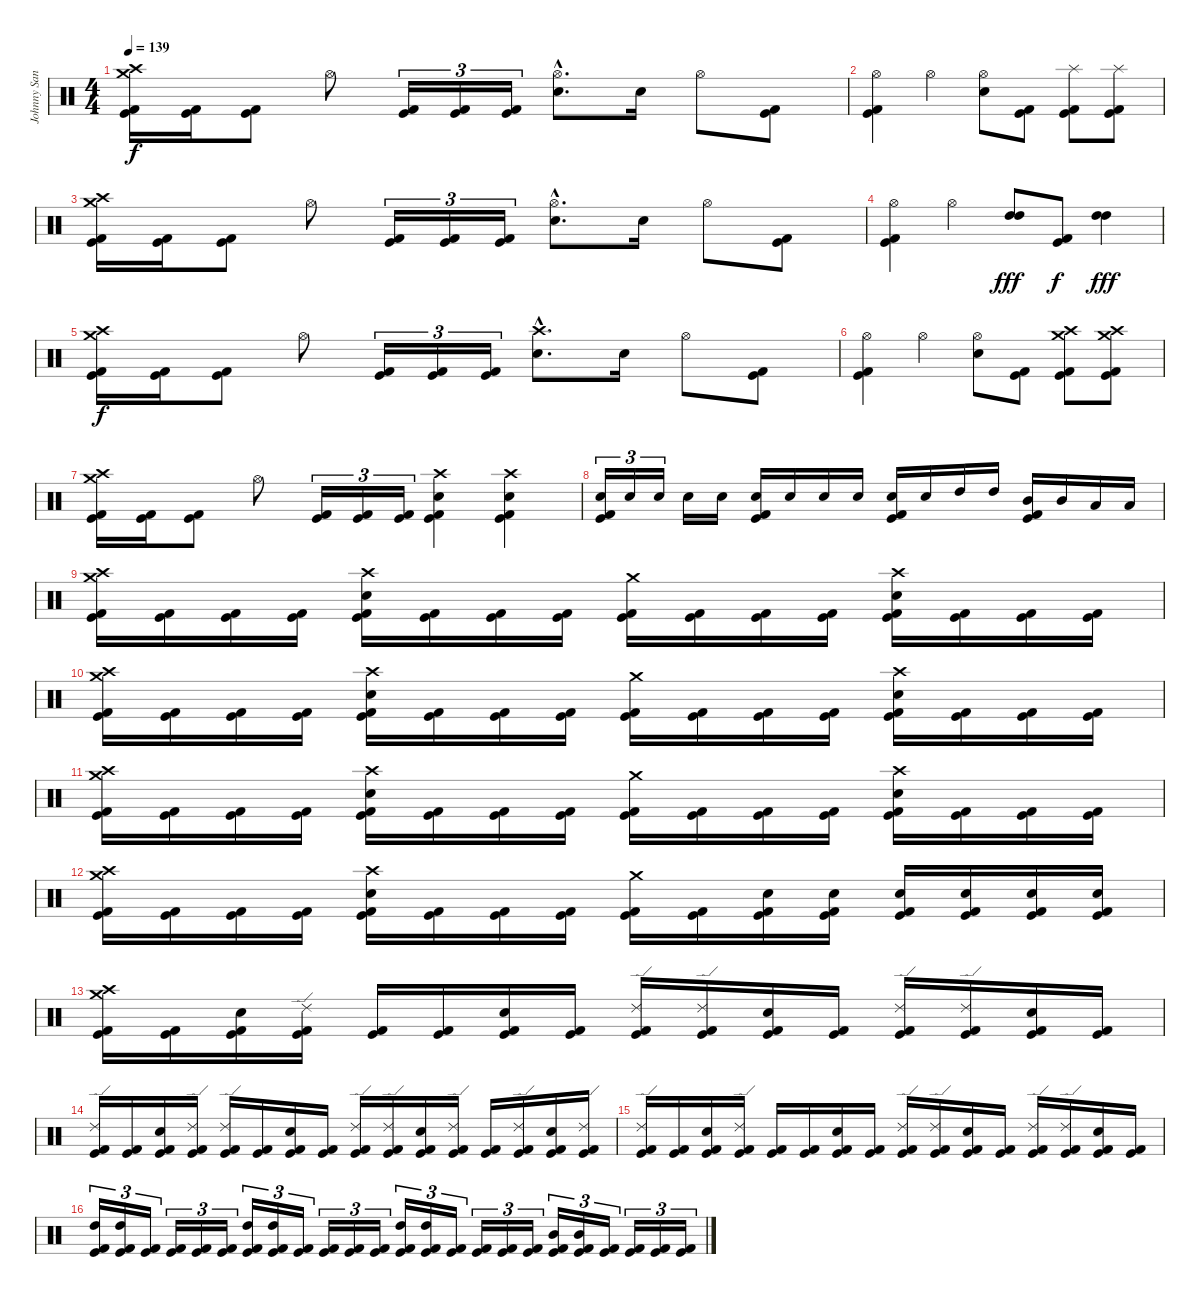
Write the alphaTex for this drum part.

\track ("Johnny Sandin" "Johnny San") {instrument percussion}
\staff {score}
\articulation defaults
\ts (4 4)
\tempo 139
\clef neutral
\ks c
("Crash medium (hit)" "Crash high (hit)" "Kick (hit) 2" "Kick (hit)").16{dy f} ("Kick (hit) 2" "Kick (hit)").16 ("Kick (hit) 2" "Kick (hit)").8 "Hi-Hat (open)".8 ("Kick (hit) 2" "Kick (hit)").16{tu (3 2)} ("Kick (hit) 2" "Kick (hit)").16{tu (3 2)} ("Kick (hit) 2" "Kick (hit)").16{tu (3 2)} ("Hi-Hat (open)"{hac} "Snare (hit) 2"{hac}).8{d} "Snare (hit) 2".16 "Hi-Hat (open)".8 ("Kick (hit) 2" "Kick (hit)").8 |
("Hi-Hat (open)" "Kick (hit) 2" "Kick (hit)").4 "Hi-Hat (open)".4 ("Hi-Hat (open)" "Snare (hit) 2").8 ("Kick (hit)" "Kick (hit) 2").8 ("Splash (hit)" "Kick (hit) 2" "Kick (hit)").8 ("Splash (hit)" "Kick (hit) 2" "Kick (hit)").8 |
("Crash medium (hit)" "Crash high (hit)" "Kick (hit) 2" "Kick (hit)").16 ("Kick (hit) 2" "Kick (hit)").16 ("Kick (hit) 2" "Kick (hit)").8 "Hi-Hat (open)".8 ("Kick (hit) 2" "Kick (hit)").16{tu (3 2)} ("Kick (hit) 2" "Kick (hit)").16{tu (3 2)} ("Kick (hit) 2" "Kick (hit)").16{tu (3 2)} ("Hi-Hat (open)"{hac} "Snare (hit) 2"{hac}).8{d} "Snare (hit) 2".16 "Hi-Hat (open)".8 ("Kick (hit) 2" "Kick (hit)").8 |
("Hi-Hat (open)" "Kick (hit) 2" "Kick (hit)").4 "Hi-Hat (open)".4 ("High Tom (hit)" "High Tom (hit)").8{dy fff} ("Kick (hit) 2" "Kick (hit)").8{dy f} ("High Tom (hit)" "High Tom (hit)").4{dy fff} |
("Crash medium (hit)" "Crash high (hit)" "Kick (hit) 2" "Kick (hit)").16{dy f} ("Kick (hit) 2" "Kick (hit)").16 ("Kick (hit) 2" "Kick (hit)").8 "Hi-Hat (open)".8 ("Kick (hit) 2" "Kick (hit)").16{tu (3 2)} ("Kick (hit) 2" "Kick (hit)").16{tu (3 2)} ("Kick (hit) 2" "Kick (hit)").16{tu (3 2)} ("Crash high (hit)"{hac} "Snare (hit) 2"{hac}).8{d} "Snare (hit) 2".16 "Hi-Hat (open)".8 ("Kick (hit) 2" "Kick (hit)").8 |
("Hi-Hat (open)" "Kick (hit) 2" "Kick (hit)").4 "Hi-Hat (open)".4 ("Hi-Hat (open)" "Snare (hit) 2").8 ("Kick (hit)" "Kick (hit) 2").8 ("Crash medium (hit)" "Crash high (hit)" "Kick (hit) 2" "Kick (hit)").8 ("Crash medium (hit)" "Crash high (hit)" "Kick (hit) 2" "Kick (hit)").8 |
("Crash medium (hit)" "Crash high (hit)" "Kick (hit) 2" "Kick (hit)").16 ("Kick (hit) 2" "Kick (hit)").16 ("Kick (hit) 2" "Kick (hit)").8 "Hi-Hat (open)".8 ("Kick (hit) 2" "Kick (hit)").16{tu (3 2)} ("Kick (hit) 2" "Kick (hit)").16{tu (3 2)} ("Kick (hit) 2" "Kick (hit)").16{tu (3 2)} ("Crash high (hit)" "Snare (hit) 2" "Kick (hit) 2" "Kick (hit)").4 ("Crash high (hit)" "Snare (hit) 2" "Kick (hit) 2" "Kick (hit)").4 |
("Snare (hit) 2" "Kick (hit) 2" "Kick (hit)").16{tu (3 2)} "Snare (hit) 2".16{tu (3 2)} "Snare (hit) 2".16{tu (3 2)} "Snare (hit) 2".16 "Snare (hit) 2".16 ("Snare (hit) 2" "Kick (hit)" "Kick (hit) 2").16 "Snare (hit) 2".16 "Snare (hit) 2".16 "Snare (hit) 2".16 ("Snare (hit) 2" "Kick (hit) 2" "Kick (hit)").16 "Snare (hit) 2".16 "High Tom (hit)".16 "High Tom (hit)".16 ("Mid Tom (hit)" "Kick (hit) 2" "Kick (hit)").16 "Mid Tom (hit)".16 "Low Tom (hit)".16 "Low Tom (hit)".16 |
("Crash medium (hit)" "Crash high (hit)" "Kick (hit) 2" "Kick (hit)").16 ("Kick (hit) 2" "Kick (hit)").16 ("Kick (hit) 2" "Kick (hit)").16 ("Kick (hit) 2" "Kick (hit)").16 ("Crash high (hit)" "Snare (hit) 2" "Kick (hit) 2" "Kick (hit)").16 ("Kick (hit) 2" "Kick (hit)").16 ("Kick (hit) 2" "Kick (hit)").16 ("Kick (hit) 2" "Kick (hit)").16 ("Crash medium (hit)" "Kick (hit) 2" "Kick (hit)").16 ("Kick (hit) 2" "Kick (hit)").16 ("Kick (hit) 2" "Kick (hit)").16 ("Kick (hit) 2" "Kick (hit)").16 ("Crash high (hit)" "Snare (hit) 2" "Kick (hit) 2" "Kick (hit)").16 ("Kick (hit) 2" "Kick (hit)").16 ("Kick (hit) 2" "Kick (hit)").16 ("Kick (hit) 2" "Kick (hit)").16 |
("Crash medium (hit)" "Crash high (hit)" "Kick (hit) 2" "Kick (hit)").16 ("Kick (hit) 2" "Kick (hit)").16 ("Kick (hit) 2" "Kick (hit)").16 ("Kick (hit) 2" "Kick (hit)").16 ("Crash high (hit)" "Snare (hit) 2" "Kick (hit) 2" "Kick (hit)").16 ("Kick (hit) 2" "Kick (hit)").16 ("Kick (hit) 2" "Kick (hit)").16 ("Kick (hit) 2" "Kick (hit)").16 ("Crash medium (hit)" "Kick (hit) 2" "Kick (hit)").16 ("Kick (hit) 2" "Kick (hit)").16 ("Kick (hit) 2" "Kick (hit)").16 ("Kick (hit) 2" "Kick (hit)").16 ("Crash high (hit)" "Snare (hit) 2" "Kick (hit) 2" "Kick (hit)").16 ("Kick (hit) 2" "Kick (hit)").16 ("Kick (hit) 2" "Kick (hit)").16 ("Kick (hit) 2" "Kick (hit)").16 |
("Crash medium (hit)" "Crash high (hit)" "Kick (hit) 2" "Kick (hit)").16 ("Kick (hit) 2" "Kick (hit)").16 ("Kick (hit) 2" "Kick (hit)").16 ("Kick (hit) 2" "Kick (hit)").16 ("Crash high (hit)" "Snare (hit) 2" "Kick (hit) 2" "Kick (hit)").16 ("Kick (hit) 2" "Kick (hit)").16 ("Kick (hit) 2" "Kick (hit)").16 ("Kick (hit) 2" "Kick (hit)").16 ("Crash medium (hit)" "Kick (hit) 2" "Kick (hit)").16 ("Kick (hit) 2" "Kick (hit)").16 ("Kick (hit) 2" "Kick (hit)").16 ("Kick (hit) 2" "Kick (hit)").16 ("Crash high (hit)" "Snare (hit) 2" "Kick (hit) 2" "Kick (hit)").16 ("Kick (hit) 2" "Kick (hit)").16 ("Kick (hit) 2" "Kick (hit)").16 ("Kick (hit) 2" "Kick (hit)").16 |
("Crash medium (hit)" "Crash high (hit)" "Kick (hit) 2" "Kick (hit)").16 ("Kick (hit) 2" "Kick (hit)").16 ("Kick (hit) 2" "Kick (hit)").16 ("Kick (hit) 2" "Kick (hit)").16 ("Crash high (hit)" "Snare (hit) 2" "Kick (hit) 2" "Kick (hit)").16 ("Kick (hit) 2" "Kick (hit)").16 ("Kick (hit) 2" "Kick (hit)").16 ("Kick (hit) 2" "Kick (hit)").16 ("Crash medium (hit)" "Kick (hit) 2" "Kick (hit)").16 ("Kick (hit) 2" "Kick (hit)").16 ("Snare (hit) 2" "Kick (hit) 2" "Kick (hit)").16 ("Snare (hit) 2" "Kick (hit) 2" "Kick (hit)").16 ("Snare (hit) 2" "Kick (hit) 2" "Kick (hit)").16 ("Snare (hit) 2" "Kick (hit) 2" "Kick (hit)").16 ("Snare (hit) 2" "Kick (hit) 2" "Kick (hit)").16 ("Snare (hit) 2" "Kick (hit) 2" "Kick (hit)").16 |
("Crash medium (hit)" "Crash high (hit)" "Kick (hit) 2" "Kick (hit)").16 ("Kick (hit) 2" "Kick (hit)").16 ("Snare (hit) 2" "Kick (hit) 2" "Kick (hit)").16 ("Ride (edge) 2" "Kick (hit) 2" "Kick (hit)").16 ("Kick (hit) 2" "Kick (hit)").16 ("Kick (hit) 2" "Kick (hit)").16 ("Snare (hit) 2" "Kick (hit) 2" "Kick (hit)").16 ("Kick (hit) 2" "Kick (hit)").16 ("Ride (edge) 2" "Kick (hit) 2" "Kick (hit)").16 ("Ride (edge) 2" "Kick (hit) 2" "Kick (hit)").16 ("Snare (hit) 2" "Kick (hit) 2" "Kick (hit)").16 ("Kick (hit) 2" "Kick (hit)").16 ("Ride (edge) 2" "Kick (hit) 2" "Kick (hit)").16 ("Ride (edge) 2" "Kick (hit) 2" "Kick (hit)").16 ("Snare (hit) 2" "Kick (hit) 2" "Kick (hit)").16 ("Kick (hit) 2" "Kick (hit)").16 |
("Ride (edge) 2" "Kick (hit) 2" "Kick (hit)").16 ("Kick (hit) 2" "Kick (hit)").16 ("Snare (hit) 2" "Kick (hit) 2" "Kick (hit)").16 ("Ride (edge) 2" "Kick (hit) 2" "Kick (hit)").16 ("Ride (edge) 2" "Kick (hit) 2" "Kick (hit)").16 ("Kick (hit) 2" "Kick (hit)").16 ("Snare (hit) 2" "Kick (hit) 2" "Kick (hit)").16 ("Kick (hit) 2" "Kick (hit)").16 ("Ride (edge) 2" "Kick (hit) 2" "Kick (hit)").16 ("Ride (edge) 2" "Kick (hit) 2" "Kick (hit)").16 ("Snare (hit) 2" "Kick (hit) 2" "Kick (hit)").16 ("Ride (edge) 2" "Kick (hit) 2" "Kick (hit)").16 ("Kick (hit) 2" "Kick (hit)").16 ("Ride (edge) 2" "Kick (hit) 2" "Kick (hit)").16 ("Snare (hit) 2" "Kick (hit) 2" "Kick (hit)").16 ("Ride (edge) 2" "Kick (hit) 2" "Kick (hit)").16 |
("Ride (edge) 2" "Kick (hit) 2" "Kick (hit)").16 ("Kick (hit) 2" "Kick (hit)").16 ("Snare (hit) 2" "Kick (hit) 2" "Kick (hit)").16 ("Ride (edge) 2" "Kick (hit) 2" "Kick (hit)").16 ("Kick (hit) 2" "Kick (hit)").16 ("Kick (hit) 2" "Kick (hit)").16 ("Snare (hit) 2" "Kick (hit) 2" "Kick (hit)").16 ("Kick (hit) 2" "Kick (hit)").16 ("Ride (edge) 2" "Kick (hit) 2" "Kick (hit)").16 ("Ride (edge) 2" "Kick (hit) 2" "Kick (hit)").16 ("Snare (hit) 2" "Kick (hit) 2" "Kick (hit)").16 ("Kick (hit) 2" "Kick (hit)").16 ("Ride (edge) 2" "Kick (hit) 2" "Kick (hit)").16 ("Ride (edge) 2" "Kick (hit) 2" "Kick (hit)").16 ("Snare (hit) 2" "Kick (hit) 2" "Kick (hit)").16 ("Kick (hit) 2" "Kick (hit)").16 |
("High Tom (hit)" "Kick (hit) 2" "Kick (hit)").16{tu (3 2)} ("High Tom (hit)" "Kick (hit) 2" "Kick (hit)").16{tu (3 2)} ("Kick (hit) 2" "Kick (hit)").16{tu (3 2)} ("Kick (hit) 2" "Kick (hit)").16{tu (3 2)} ("Kick (hit) 2" "Kick (hit)").16{tu (3 2)} ("Kick (hit) 2" "Kick (hit)").16{tu (3 2)} ("High Tom (hit)" "Kick (hit) 2" "Kick (hit)").16{tu (3 2)} ("High Tom (hit)" "Kick (hit) 2" "Kick (hit)").16{tu (3 2)} ("Kick (hit) 2" "Kick (hit)").16{tu (3 2)} ("Kick (hit) 2" "Kick (hit)").16{tu (3 2)} ("Kick (hit) 2" "Kick (hit)").16{tu (3 2)} ("Kick (hit) 2" "Kick (hit)").16{tu (3 2)} ("High Tom (hit)" "Kick (hit) 2" "Kick (hit)").16{tu (3 2)} ("High Tom (hit)" "Kick (hit) 2" "Kick (hit)").16{tu (3 2)} ("Kick (hit) 2" "Kick (hit)").16{tu (3 2)} ("Kick (hit) 2" "Kick (hit)").16{tu (3 2)} ("Kick (hit) 2" "Kick (hit)").16{tu (3 2)} ("Kick (hit) 2" "Kick (hit)").16{tu (3 2)} ("Mid Tom (hit)" "Kick (hit) 2" "Kick (hit)").16{tu (3 2)} ("Mid Tom (hit)" "Kick (hit) 2" "Kick (hit)").16{tu (3 2)} ("Kick (hit) 2" "Kick (hit)").16{tu (3 2)} ("Kick (hit) 2" "Kick (hit)").16{tu (3 2)} ("Kick (hit) 2" "Kick (hit)").16{tu (3 2)} ("Kick (hit) 2" "Kick (hit)").16{tu (3 2)}
